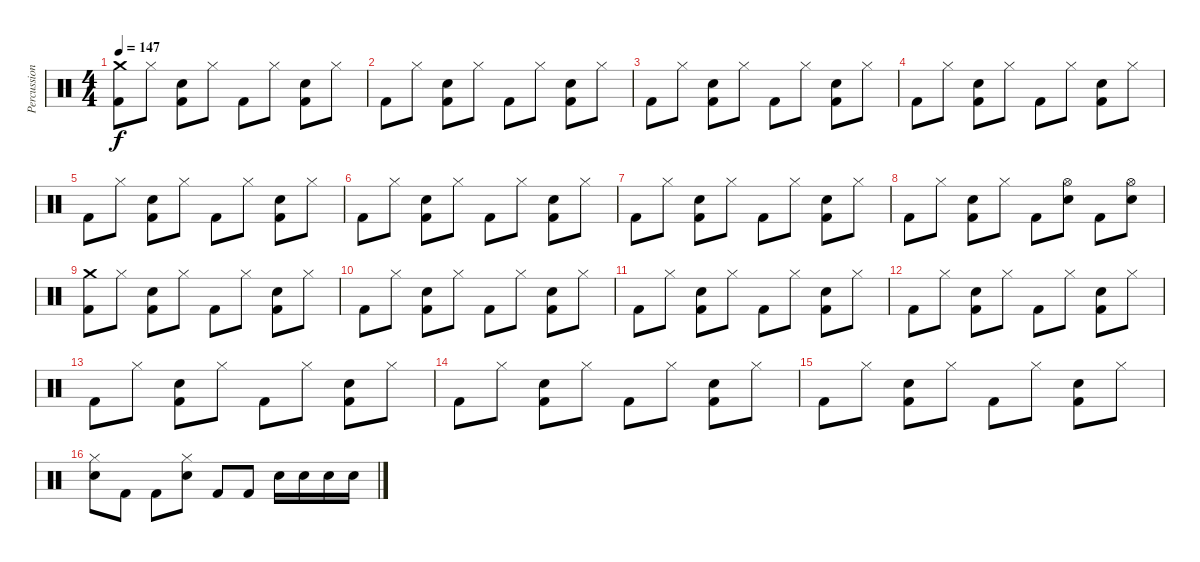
\track ("Percussion" "Percussion") {instrument percussion}
\staff {score}
\articulation defaults
\ts (4 4)
\tempo 147
\clef neutral
\ks c
("Crash medium (hit)" "Kick (hit) 2").8{dy f} "Hi-Hat (closed)".8 ("Kick (hit) 2" "Electric Snare (hit)").8 "Hi-Hat (closed)".8 "Kick (hit) 2".8 "Hi-Hat (closed)".8 ("Kick (hit) 2" "Electric Snare (hit)").8 "Hi-Hat (closed)".8 |
"Kick (hit) 2".8 "Hi-Hat (closed)".8 ("Kick (hit) 2" "Electric Snare (hit)").8 "Hi-Hat (closed)".8 "Kick (hit) 2".8 "Hi-Hat (closed)".8 ("Kick (hit) 2" "Electric Snare (hit)").8 "Hi-Hat (closed)".8 |
"Kick (hit) 2".8 "Hi-Hat (closed)".8 ("Kick (hit) 2" "Electric Snare (hit)").8 "Hi-Hat (closed)".8 "Kick (hit) 2".8 "Hi-Hat (closed)".8 ("Kick (hit) 2" "Electric Snare (hit)").8 "Hi-Hat (closed)".8 |
"Kick (hit) 2".8 "Hi-Hat (closed)".8 ("Kick (hit) 2" "Electric Snare (hit)").8 "Hi-Hat (closed)".8 "Kick (hit) 2".8 "Hi-Hat (closed)".8 ("Kick (hit) 2" "Electric Snare (hit)").8 "Hi-Hat (closed)".8 |
"Kick (hit) 2".8 "Hi-Hat (closed)".8 ("Kick (hit) 2" "Electric Snare (hit)").8 "Hi-Hat (closed)".8 "Kick (hit) 2".8 "Hi-Hat (closed)".8 ("Kick (hit) 2" "Electric Snare (hit)").8 "Hi-Hat (closed)".8 |
"Kick (hit) 2".8 "Hi-Hat (closed)".8 ("Kick (hit) 2" "Electric Snare (hit)").8 "Hi-Hat (closed)".8 "Kick (hit) 2".8 "Hi-Hat (closed)".8 ("Kick (hit) 2" "Electric Snare (hit)").8 "Hi-Hat (closed)".8 |
"Kick (hit) 2".8 "Hi-Hat (closed)".8 ("Kick (hit) 2" "Electric Snare (hit)").8 "Hi-Hat (closed)".8 "Kick (hit) 2".8 "Hi-Hat (closed)".8 ("Kick (hit) 2" "Electric Snare (hit)").8 "Hi-Hat (closed)".8 |
"Kick (hit) 2".8 "Hi-Hat (closed)".8 ("Kick (hit) 2" "Electric Snare (hit)").8 "Hi-Hat (closed)".8 "Kick (hit) 2".8 ("Hi-Hat (open)" "Electric Snare (hit)").8 "Kick (hit) 2".8 ("Hi-Hat (open)" "Electric Snare (hit)").8 |
("Crash medium (hit)" "Kick (hit) 2").8 "Hi-Hat (closed)".8 ("Kick (hit) 2" "Electric Snare (hit)").8 "Hi-Hat (closed)".8 "Kick (hit) 2".8 "Hi-Hat (closed)".8 ("Kick (hit) 2" "Electric Snare (hit)").8 "Hi-Hat (closed)".8 |
"Kick (hit) 2".8 "Hi-Hat (closed)".8 ("Kick (hit) 2" "Electric Snare (hit)").8 "Hi-Hat (closed)".8 "Kick (hit) 2".8 "Hi-Hat (closed)".8 ("Kick (hit) 2" "Electric Snare (hit)").8 "Hi-Hat (closed)".8 |
"Kick (hit) 2".8 "Hi-Hat (closed)".8 ("Kick (hit) 2" "Electric Snare (hit)").8 "Hi-Hat (closed)".8 "Kick (hit) 2".8 "Hi-Hat (closed)".8 ("Kick (hit) 2" "Electric Snare (hit)").8 "Hi-Hat (closed)".8 |
"Kick (hit) 2".8 "Hi-Hat (closed)".8 ("Kick (hit) 2" "Electric Snare (hit)").8 "Hi-Hat (closed)".8 "Kick (hit) 2".8 "Hi-Hat (closed)".8 ("Kick (hit) 2" "Electric Snare (hit)").8 "Hi-Hat (closed)".8 |
"Kick (hit) 2".8 "Hi-Hat (closed)".8 ("Kick (hit) 2" "Electric Snare (hit)").8 "Hi-Hat (closed)".8 "Kick (hit) 2".8 "Hi-Hat (closed)".8 ("Kick (hit) 2" "Electric Snare (hit)").8 "Hi-Hat (closed)".8 |
"Kick (hit) 2".8 "Hi-Hat (closed)".8 ("Kick (hit) 2" "Electric Snare (hit)").8 "Hi-Hat (closed)".8 "Kick (hit) 2".8 "Hi-Hat (closed)".8 ("Kick (hit) 2" "Electric Snare (hit)").8 "Hi-Hat (closed)".8 |
"Kick (hit) 2".8 "Hi-Hat (closed)".8 ("Kick (hit) 2" "Electric Snare (hit)").8 "Hi-Hat (closed)".8 "Kick (hit) 2".8 "Hi-Hat (closed)".8 ("Kick (hit) 2" "Electric Snare (hit)").8 "Hi-Hat (closed)".8 |
("Electric Snare (hit)" "Hi-Hat (closed)").8 "Kick (hit) 2".8 "Kick (hit) 2".8 ("Electric Snare (hit)" "Hi-Hat (closed)").8 "Kick (hit) 2".8 "Kick (hit) 2".8 "Electric Snare (hit)".16 "Electric Snare (hit)".16 "Electric Snare (hit)".16 "Electric Snare (hit)".16
